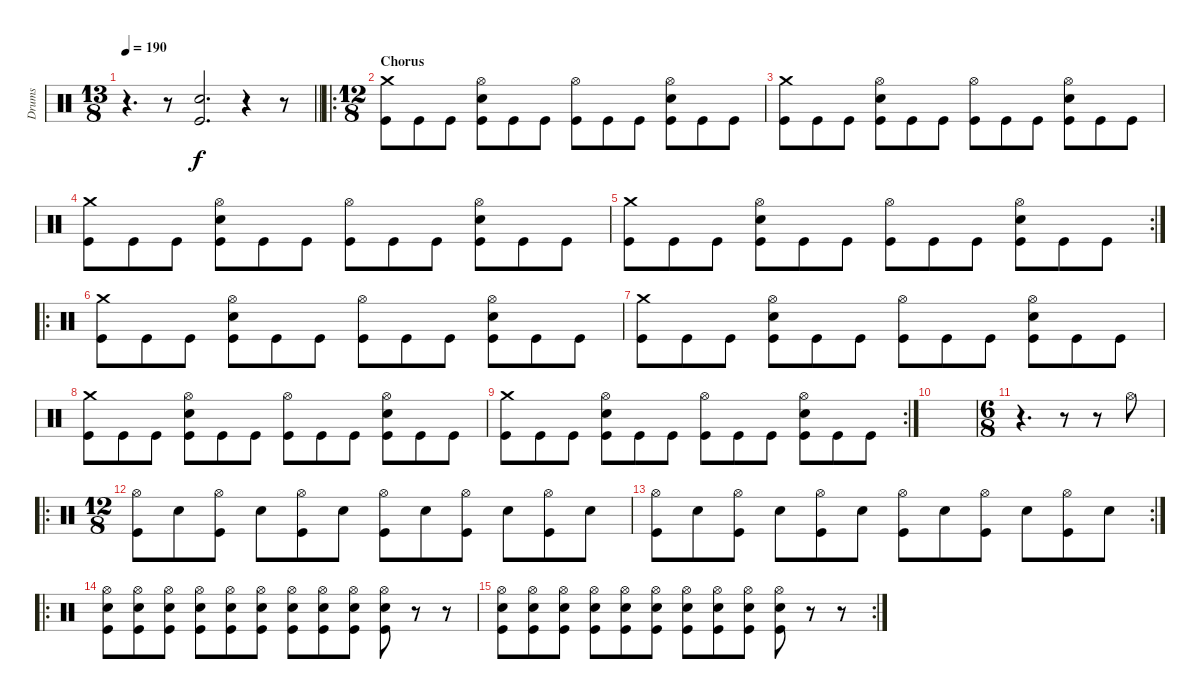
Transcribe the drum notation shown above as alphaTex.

\track ("Drums" "Drums") {instrument percussion}
\staff {score}
\articulation defaults
\ts (13 8)
\tempo 190
\clef neutral
\barLineRight lightlight
\ks c
r.4{d dy f} r.8 ("Snare (hit) 2" "Kick (hit)").2{d} r.4 r.8 |
\ro
\ts (12 8)
\section ("" "Chorus")
("Crash medium (hit)" "Kick (hit)").8 "Kick (hit)".8 "Kick (hit)".8 ("Hi-Hat (open)" "Snare (hit) 2" "Kick (hit)").8 "Kick (hit)".8 "Kick (hit)".8 ("Hi-Hat (open)" "Kick (hit)").8 "Kick (hit)".8 "Kick (hit)".8 ("Hi-Hat (open)" "Snare (hit) 2" "Kick (hit)").8 "Kick (hit)".8 "Kick (hit)".8 |
("Crash medium (hit)" "Kick (hit)").8 "Kick (hit)".8 "Kick (hit)".8 ("Hi-Hat (open)" "Snare (hit) 2" "Kick (hit)").8 "Kick (hit)".8 "Kick (hit)".8 ("Hi-Hat (open)" "Kick (hit)").8 "Kick (hit)".8 "Kick (hit)".8 ("Hi-Hat (open)" "Snare (hit) 2" "Kick (hit)").8 "Kick (hit)".8 "Kick (hit)".8 |
("Crash medium (hit)" "Kick (hit)").8 "Kick (hit)".8 "Kick (hit)".8 ("Hi-Hat (open)" "Snare (hit) 2" "Kick (hit)").8 "Kick (hit)".8 "Kick (hit)".8 ("Hi-Hat (open)" "Kick (hit)").8 "Kick (hit)".8 "Kick (hit)".8 ("Hi-Hat (open)" "Snare (hit) 2" "Kick (hit)").8 "Kick (hit)".8 "Kick (hit)".8 |
\rc 2
("Crash medium (hit)" "Kick (hit)").8 "Kick (hit)".8 "Kick (hit)".8 ("Hi-Hat (open)" "Snare (hit) 2" "Kick (hit)").8 "Kick (hit)".8 "Kick (hit)".8 ("Hi-Hat (open)" "Kick (hit)").8 "Kick (hit)".8 "Kick (hit)".8 ("Hi-Hat (open)" "Snare (hit) 2" "Kick (hit)").8 "Kick (hit)".8 "Kick (hit)".8 |
\ro
("Crash medium (hit)" "Kick (hit)").8 "Kick (hit)".8 "Kick (hit)".8 ("Hi-Hat (open)" "Snare (hit) 2" "Kick (hit)").8 "Kick (hit)".8 "Kick (hit)".8 ("Hi-Hat (open)" "Kick (hit)").8 "Kick (hit)".8 "Kick (hit)".8 ("Hi-Hat (open)" "Snare (hit) 2" "Kick (hit)").8 "Kick (hit)".8 "Kick (hit)".8 |
("Crash medium (hit)" "Kick (hit)").8 "Kick (hit)".8 "Kick (hit)".8 ("Hi-Hat (open)" "Snare (hit) 2" "Kick (hit)").8 "Kick (hit)".8 "Kick (hit)".8 ("Hi-Hat (open)" "Kick (hit)").8 "Kick (hit)".8 "Kick (hit)".8 ("Hi-Hat (open)" "Snare (hit) 2" "Kick (hit)").8 "Kick (hit)".8 "Kick (hit)".8 |
("Crash medium (hit)" "Kick (hit)").8 "Kick (hit)".8 "Kick (hit)".8 ("Hi-Hat (open)" "Snare (hit) 2" "Kick (hit)").8 "Kick (hit)".8 "Kick (hit)".8 ("Hi-Hat (open)" "Kick (hit)").8 "Kick (hit)".8 "Kick (hit)".8 ("Hi-Hat (open)" "Snare (hit) 2" "Kick (hit)").8 "Kick (hit)".8 "Kick (hit)".8 |
\rc 2
("Crash medium (hit)" "Kick (hit)").8 "Kick (hit)".8 "Kick (hit)".8 ("Hi-Hat (open)" "Snare (hit) 2" "Kick (hit)").8 "Kick (hit)".8 "Kick (hit)".8 ("Hi-Hat (open)" "Kick (hit)").8 "Kick (hit)".8 "Kick (hit)".8 ("Hi-Hat (open)" "Snare (hit) 2" "Kick (hit)").8 "Kick (hit)".8 "Kick (hit)".8 |
|
\ts (6 8)
r.4{d} r.8 r.8 "Hi-Hat (open)".8 |
\ro
\ts (12 8)
("Hi-Hat (open)" "Kick (hit)").8 "Snare (hit) 2".8 ("Hi-Hat (open)" "Kick (hit)").8 "Snare (hit) 2".8 ("Hi-Hat (open)" "Kick (hit)").8 "Snare (hit) 2".8 ("Hi-Hat (open)" "Kick (hit)").8 "Snare (hit) 2".8 ("Hi-Hat (open)" "Kick (hit)").8 "Snare (hit) 2".8 ("Hi-Hat (open)" "Kick (hit)").8 "Snare (hit) 2".8 |
\rc 2
("Hi-Hat (open)" "Kick (hit)").8 "Snare (hit) 2".8 ("Hi-Hat (open)" "Kick (hit)").8 "Snare (hit) 2".8 ("Hi-Hat (open)" "Kick (hit)").8 "Snare (hit) 2".8 ("Hi-Hat (open)" "Kick (hit)").8 "Snare (hit) 2".8 ("Hi-Hat (open)" "Kick (hit)").8 "Snare (hit) 2".8 ("Hi-Hat (open)" "Kick (hit)").8 "Snare (hit) 2".8 |
\ro
("Hi-Hat (open)" "Snare (hit) 2" "Kick (hit)").8 ("Hi-Hat (open)" "Snare (hit) 2" "Kick (hit)").8 ("Hi-Hat (open)" "Snare (hit) 2" "Kick (hit)").8 ("Hi-Hat (open)" "Snare (hit) 2" "Kick (hit)").8 ("Hi-Hat (open)" "Snare (hit) 2" "Kick (hit)").8 ("Hi-Hat (open)" "Snare (hit) 2" "Kick (hit)").8 ("Hi-Hat (open)" "Snare (hit) 2" "Kick (hit)").8 ("Hi-Hat (open)" "Snare (hit) 2" "Kick (hit)").8 ("Hi-Hat (open)" "Snare (hit) 2" "Kick (hit)").8 ("Hi-Hat (open)" "Snare (hit) 2" "Kick (hit)").8 r.8 r.8 |
\rc 2
("Hi-Hat (open)" "Snare (hit) 2" "Kick (hit)").8 ("Hi-Hat (open)" "Snare (hit) 2" "Kick (hit)").8 ("Hi-Hat (open)" "Snare (hit) 2" "Kick (hit)").8 ("Hi-Hat (open)" "Snare (hit) 2" "Kick (hit)").8 ("Hi-Hat (open)" "Snare (hit) 2" "Kick (hit)").8 ("Hi-Hat (open)" "Snare (hit) 2" "Kick (hit)").8 ("Hi-Hat (open)" "Snare (hit) 2" "Kick (hit)").8 ("Hi-Hat (open)" "Snare (hit) 2" "Kick (hit)").8 ("Hi-Hat (open)" "Snare (hit) 2" "Kick (hit)").8 ("Hi-Hat (open)" "Snare (hit) 2" "Kick (hit)").8 r.8 r.8
